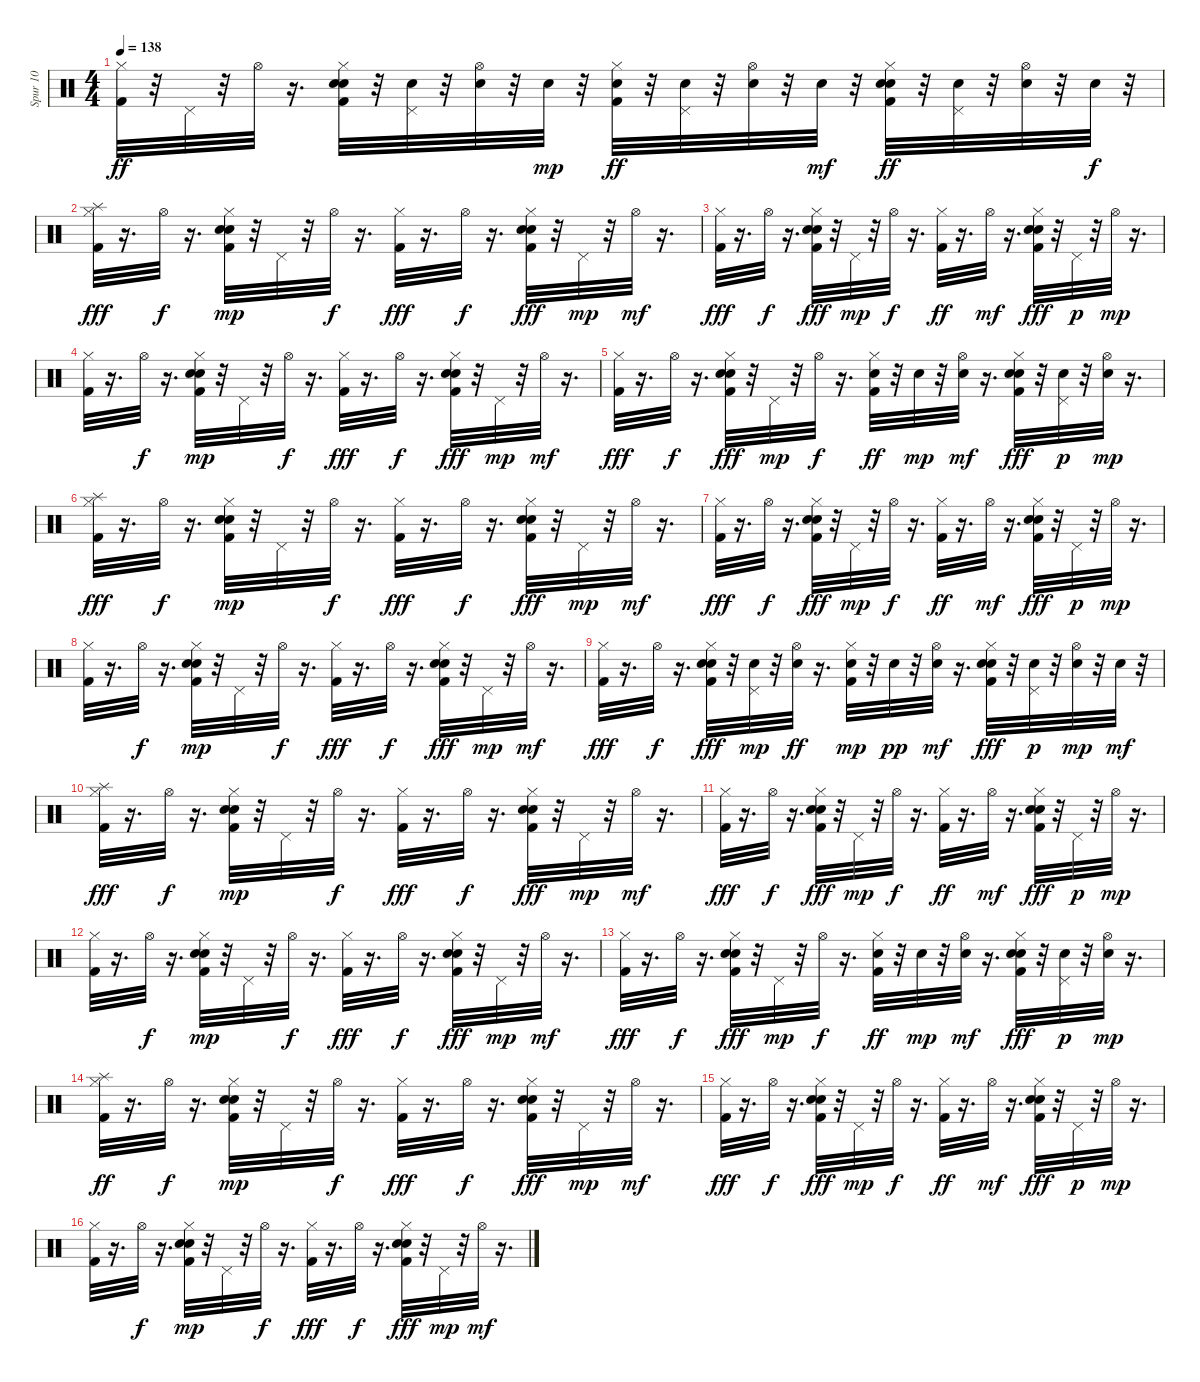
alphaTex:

\track ("Spur 10" "Spur 10") {instrument percussion}
\staff {score}
\articulation defaults
\ts (4 4)
\tempo 138
\clef neutral
\ks c
("Kick (hit) 2" "Hi-Hat (closed)").32{dy ff} r.32 "Pedal Hi-Hat (hit)".32 r.32 "Hi-Hat (open)".32 r.16{d} ("Kick (hit) 2" "Snare (hit) 2" "Hand Clap (hit)" "Hi-Hat (closed)").32 r.32 ("Snare (hit) 2" "Pedal Hi-Hat (hit)").32 r.32 ("Snare (hit) 2" "Hi-Hat (open)").32 r.32 "Snare (hit) 2".32{dy mp} r.32 ("Kick (hit) 2" "Snare (hit) 2" "Hi-Hat (closed)").32{dy ff} r.32 ("Snare (hit) 2" "Pedal Hi-Hat (hit)").32 r.32 ("Snare (hit) 2" "Hi-Hat (open)").32 r.32 "Snare (hit) 2".32{dy mf} r.32 ("Kick (hit) 2" "Snare (hit) 2" "Hand Clap (hit)" "Hi-Hat (closed)").32{dy ff} r.32 ("Snare (hit) 2" "Pedal Hi-Hat (hit)").32 r.32 ("Snare (hit) 2" "Hi-Hat (open)").32 r.32 "Snare (hit) 2".32{dy f} r.32 |
("Kick (hit) 2" "Hi-Hat (closed)" "Splash (hit)").32{dy fff} r.16{d} "Hi-Hat (open)".32{dy f} r.16{d} ("Kick (hit) 2" "Snare (hit) 2" "Hand Clap (hit)" "Hi-Hat (closed)").32{dy mp} r.32 "Pedal Hi-Hat (hit)".32 r.32 "Hi-Hat (open)".32{dy f} r.16{d} ("Kick (hit) 2" "Hi-Hat (closed)").32{dy fff} r.16{d} "Hi-Hat (open)".32{dy f} r.16{d} ("Kick (hit) 2" "Snare (hit) 2" "Hand Clap (hit)" "Hi-Hat (closed)").32{dy fff} r.32 "Pedal Hi-Hat (hit)".32{dy mp} r.32 "Hi-Hat (open)".32{dy mf} r.16{d} |
("Kick (hit) 2" "Hi-Hat (closed)").32{dy fff} r.16{d} "Hi-Hat (open)".32{dy f} r.16{d} ("Kick (hit) 2" "Snare (hit) 2" "Hand Clap (hit)" "Hi-Hat (closed)").32{dy fff} r.32 "Pedal Hi-Hat (hit)".32{dy mp} r.32 "Hi-Hat (open)".32{dy f} r.16{d} ("Kick (hit) 2" "Hi-Hat (closed)").32{dy ff} r.16{d} "Hi-Hat (open)".32{dy mf} r.16{d} ("Kick (hit) 2" "Snare (hit) 2" "Hand Clap (hit)" "Hi-Hat (closed)").32{dy fff} r.32 "Pedal Hi-Hat (hit)".32{dy p} r.32 "Hi-Hat (open)".32{dy mp} r.16{d} |
("Kick (hit) 2" "Hi-Hat (closed)").32 r.16{d} "Hi-Hat (open)".32{dy f} r.16{d} ("Kick (hit) 2" "Snare (hit) 2" "Hand Clap (hit)" "Hi-Hat (closed)").32{dy mp} r.32 "Pedal Hi-Hat (hit)".32 r.32 "Hi-Hat (open)".32{dy f} r.16{d} ("Kick (hit) 2" "Hi-Hat (closed)").32{dy fff} r.16{d} "Hi-Hat (open)".32{dy f} r.16{d} ("Kick (hit) 2" "Snare (hit) 2" "Hand Clap (hit)" "Hi-Hat (closed)").32{dy fff} r.32 "Pedal Hi-Hat (hit)".32{dy mp} r.32 "Hi-Hat (open)".32{dy mf} r.16{d} |
("Kick (hit) 2" "Hi-Hat (closed)").32{dy fff} r.16{d} "Hi-Hat (open)".32{dy f} r.16{d} ("Kick (hit) 2" "Snare (hit) 2" "Hand Clap (hit)" "Hi-Hat (closed)").32{dy fff} r.32 "Pedal Hi-Hat (hit)".32{dy mp} r.32 "Hi-Hat (open)".32{dy f} r.16{d} ("Kick (hit) 2" "Snare (hit) 2" "Hi-Hat (closed)").32{dy ff} r.32 "Snare (hit) 2".32{dy mp} r.32 ("Snare (hit) 2" "Hi-Hat (open)").32{dy mf} r.16{d} ("Kick (hit) 2" "Snare (hit) 2" "Hand Clap (hit)" "Hi-Hat (closed)").32{dy fff} r.32 ("Snare (hit) 2" "Pedal Hi-Hat (hit)").32{dy p} r.32 ("Snare (hit) 2" "Hi-Hat (open)").32{dy mp} r.16{d} |
("Kick (hit) 2" "Hi-Hat (closed)" "Splash (hit)").32{dy fff} r.16{d} "Hi-Hat (open)".32{dy f} r.16{d} ("Kick (hit) 2" "Snare (hit) 2" "Hand Clap (hit)" "Hi-Hat (closed)").32{dy mp} r.32 "Pedal Hi-Hat (hit)".32 r.32 "Hi-Hat (open)".32{dy f} r.16{d} ("Kick (hit) 2" "Hi-Hat (closed)").32{dy fff} r.16{d} "Hi-Hat (open)".32{dy f} r.16{d} ("Kick (hit) 2" "Snare (hit) 2" "Hand Clap (hit)" "Hi-Hat (closed)").32{dy fff} r.32 "Pedal Hi-Hat (hit)".32{dy mp} r.32 "Hi-Hat (open)".32{dy mf} r.16{d} |
("Kick (hit) 2" "Hi-Hat (closed)").32{dy fff} r.16{d} "Hi-Hat (open)".32{dy f} r.16{d} ("Kick (hit) 2" "Snare (hit) 2" "Hand Clap (hit)" "Hi-Hat (closed)").32{dy fff} r.32 "Pedal Hi-Hat (hit)".32{dy mp} r.32 "Hi-Hat (open)".32{dy f} r.16{d} ("Kick (hit) 2" "Hi-Hat (closed)").32{dy ff} r.16{d} "Hi-Hat (open)".32{dy mf} r.16{d} ("Kick (hit) 2" "Snare (hit) 2" "Hand Clap (hit)" "Hi-Hat (closed)").32{dy fff} r.32 "Pedal Hi-Hat (hit)".32{dy p} r.32 "Hi-Hat (open)".32{dy mp} r.16{d} |
("Kick (hit) 2" "Hi-Hat (closed)").32 r.16{d} "Hi-Hat (open)".32{dy f} r.16{d} ("Kick (hit) 2" "Snare (hit) 2" "Hand Clap (hit)" "Hi-Hat (closed)").32{dy mp} r.32 "Pedal Hi-Hat (hit)".32 r.32 "Hi-Hat (open)".32{dy f} r.16{d} ("Kick (hit) 2" "Hi-Hat (closed)").32{dy fff} r.16{d} "Hi-Hat (open)".32{dy f} r.16{d} ("Kick (hit) 2" "Snare (hit) 2" "Hand Clap (hit)" "Hi-Hat (closed)").32{dy fff} r.32 "Pedal Hi-Hat (hit)".32{dy mp} r.32 "Hi-Hat (open)".32{dy mf} r.16{d} |
("Kick (hit) 2" "Hi-Hat (closed)").32{dy fff} r.16{d} "Hi-Hat (open)".32{dy f} r.16{d} ("Kick (hit) 2" "Snare (hit) 2" "Hand Clap (hit)" "Hi-Hat (closed)").32{dy fff} r.32 ("Snare (hit) 2" "Pedal Hi-Hat (hit)").32{dy mp} r.32 ("Snare (hit) 2" "Hi-Hat (open)").32{dy ff} r.16{d} ("Kick (hit) 2" "Snare (hit) 2" "Hi-Hat (closed)").32{dy mp} r.32 "Snare (hit) 2".32{dy pp} r.32 ("Snare (hit) 2" "Hi-Hat (open)").32{dy mf} r.16{d} ("Kick (hit) 2" "Snare (hit) 2" "Hand Clap (hit)" "Hi-Hat (closed)").32{dy fff} r.32 ("Snare (hit) 2" "Pedal Hi-Hat (hit)").32{dy p} r.32 ("Snare (hit) 2" "Hi-Hat (open)").32{dy mp} r.32 "Snare (hit) 2".32{dy mf} r.32 |
("Kick (hit) 2" "Hi-Hat (closed)" "Splash (hit)").32{dy fff} r.16{d} "Hi-Hat (open)".32{dy f} r.16{d} ("Kick (hit) 2" "Snare (hit) 2" "Hand Clap (hit)" "Hi-Hat (closed)").32{dy mp} r.32 "Pedal Hi-Hat (hit)".32 r.32 "Hi-Hat (open)".32{dy f} r.16{d} ("Kick (hit) 2" "Hi-Hat (closed)").32{dy fff} r.16{d} "Hi-Hat (open)".32{dy f} r.16{d} ("Kick (hit) 2" "Snare (hit) 2" "Hand Clap (hit)" "Hi-Hat (closed)").32{dy fff} r.32 "Pedal Hi-Hat (hit)".32{dy mp} r.32 "Hi-Hat (open)".32{dy mf} r.16{d} |
("Kick (hit) 2" "Hi-Hat (closed)").32{dy fff} r.16{d} "Hi-Hat (open)".32{dy f} r.16{d} ("Kick (hit) 2" "Snare (hit) 2" "Hand Clap (hit)" "Hi-Hat (closed)").32{dy fff} r.32 "Pedal Hi-Hat (hit)".32{dy mp} r.32 "Hi-Hat (open)".32{dy f} r.16{d} ("Kick (hit) 2" "Hi-Hat (closed)").32{dy ff} r.16{d} "Hi-Hat (open)".32{dy mf} r.16{d} ("Kick (hit) 2" "Snare (hit) 2" "Hand Clap (hit)" "Hi-Hat (closed)").32{dy fff} r.32 "Pedal Hi-Hat (hit)".32{dy p} r.32 "Hi-Hat (open)".32{dy mp} r.16{d} |
("Kick (hit) 2" "Hi-Hat (closed)").32 r.16{d} "Hi-Hat (open)".32{dy f} r.16{d} ("Kick (hit) 2" "Snare (hit) 2" "Hand Clap (hit)" "Hi-Hat (closed)").32{dy mp} r.32 "Pedal Hi-Hat (hit)".32 r.32 "Hi-Hat (open)".32{dy f} r.16{d} ("Kick (hit) 2" "Hi-Hat (closed)").32{dy fff} r.16{d} "Hi-Hat (open)".32{dy f} r.16{d} ("Kick (hit) 2" "Snare (hit) 2" "Hand Clap (hit)" "Hi-Hat (closed)").32{dy fff} r.32 "Pedal Hi-Hat (hit)".32{dy mp} r.32 "Hi-Hat (open)".32{dy mf} r.16{d} |
("Kick (hit) 2" "Hi-Hat (closed)").32{dy fff} r.16{d} "Hi-Hat (open)".32{dy f} r.16{d} ("Kick (hit) 2" "Snare (hit) 2" "Hand Clap (hit)" "Hi-Hat (closed)").32{dy fff} r.32 "Pedal Hi-Hat (hit)".32{dy mp} r.32 "Hi-Hat (open)".32{dy f} r.16{d} ("Kick (hit) 2" "Snare (hit) 2" "Hi-Hat (closed)").32{dy ff} r.32 "Snare (hit) 2".32{dy mp} r.32 ("Snare (hit) 2" "Hi-Hat (open)").32{dy mf} r.16{d} ("Kick (hit) 2" "Snare (hit) 2" "Hand Clap (hit)" "Hi-Hat (closed)").32{dy fff} r.32 ("Snare (hit) 2" "Pedal Hi-Hat (hit)").32{dy p} r.32 ("Snare (hit) 2" "Hi-Hat (open)").32{dy mp} r.16{d} |
("Kick (hit) 2" "Hi-Hat (closed)" "Splash (hit)").32{dy ff} r.16{d} "Hi-Hat (open)".32{dy f} r.16{d} ("Kick (hit) 2" "Snare (hit) 2" "Hand Clap (hit)" "Hi-Hat (closed)").32{dy mp} r.32 "Pedal Hi-Hat (hit)".32 r.32 "Hi-Hat (open)".32{dy f} r.16{d} ("Kick (hit) 2" "Hi-Hat (closed)").32{dy fff} r.16{d} "Hi-Hat (open)".32{dy f} r.16{d} ("Kick (hit) 2" "Snare (hit) 2" "Hand Clap (hit)" "Hi-Hat (closed)").32{dy fff} r.32 "Pedal Hi-Hat (hit)".32{dy mp} r.32 "Hi-Hat (open)".32{dy mf} r.16{d} |
("Kick (hit) 2" "Hi-Hat (closed)").32{dy fff} r.16{d} "Hi-Hat (open)".32{dy f} r.16{d} ("Kick (hit) 2" "Snare (hit) 2" "Hand Clap (hit)" "Hi-Hat (closed)").32{dy fff} r.32 "Pedal Hi-Hat (hit)".32{dy mp} r.32 "Hi-Hat (open)".32{dy f} r.16{d} ("Kick (hit) 2" "Hi-Hat (closed)").32{dy ff} r.16{d} "Hi-Hat (open)".32{dy mf} r.16{d} ("Kick (hit) 2" "Snare (hit) 2" "Hand Clap (hit)" "Hi-Hat (closed)").32{dy fff} r.32 "Pedal Hi-Hat (hit)".32{dy p} r.32 "Hi-Hat (open)".32{dy mp} r.16{d} |
("Kick (hit) 2" "Hi-Hat (closed)").32 r.16{d} "Hi-Hat (open)".32{dy f} r.16{d} ("Kick (hit) 2" "Snare (hit) 2" "Hand Clap (hit)" "Hi-Hat (closed)").32{dy mp} r.32 "Pedal Hi-Hat (hit)".32 r.32 "Hi-Hat (open)".32{dy f} r.16{d} ("Kick (hit) 2" "Hi-Hat (closed)").32{dy fff} r.16{d} "Hi-Hat (open)".32{dy f} r.16{d} ("Kick (hit) 2" "Snare (hit) 2" "Hand Clap (hit)" "Hi-Hat (closed)").32{dy fff} r.32 "Pedal Hi-Hat (hit)".32{dy mp} r.32 "Hi-Hat (open)".32{dy mf} r.16{d}
